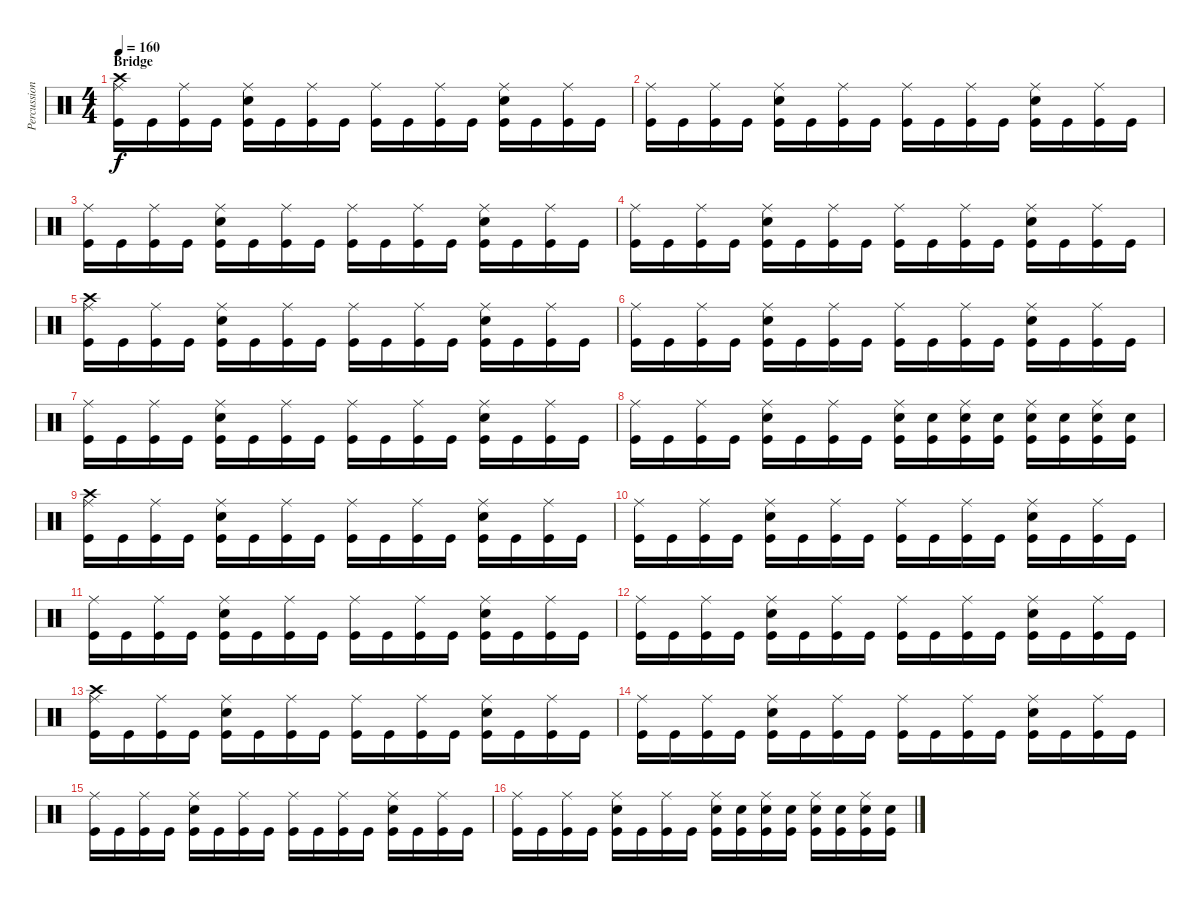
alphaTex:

\track ("Percussion" "Percussion") {instrument percussion}
\staff {score}
\articulation defaults
\ts (4 4)
\section ("" "Bridge")
\tempo 160
\clef neutral
\ks c
("Crash high (hit)" "Ride (middle)" "Kick (hit)").16{dy f} "Kick (hit)".16 ("Ride (middle)" "Kick (hit)").16 "Kick (hit)".16 ("Electric Snare (hit)" "Ride (middle)" "Kick (hit)").16 "Kick (hit)".16 ("Ride (middle)" "Kick (hit)").16 "Kick (hit)".16 ("Ride (middle)" "Kick (hit)").16 "Kick (hit)".16 ("Ride (middle)" "Kick (hit)").16 "Kick (hit)".16 ("Electric Snare (hit)" "Ride (middle)" "Kick (hit)").16 "Kick (hit)".16 ("Ride (middle)" "Kick (hit)").16 "Kick (hit)".16 |
("Ride (middle)" "Kick (hit)").16 "Kick (hit)".16 ("Ride (middle)" "Kick (hit)").16 "Kick (hit)".16 ("Electric Snare (hit)" "Ride (middle)" "Kick (hit)").16 "Kick (hit)".16 ("Ride (middle)" "Kick (hit)").16 "Kick (hit)".16 ("Ride (middle)" "Kick (hit)").16 "Kick (hit)".16 ("Ride (middle)" "Kick (hit)").16 "Kick (hit)".16 ("Electric Snare (hit)" "Ride (middle)" "Kick (hit)").16 "Kick (hit)".16 ("Ride (middle)" "Kick (hit)").16 "Kick (hit)".16 |
("Ride (middle)" "Kick (hit)").16 "Kick (hit)".16 ("Ride (middle)" "Kick (hit)").16 "Kick (hit)".16 ("Electric Snare (hit)" "Ride (middle)" "Kick (hit)").16 "Kick (hit)".16 ("Ride (middle)" "Kick (hit)").16 "Kick (hit)".16 ("Ride (middle)" "Kick (hit)").16 "Kick (hit)".16 ("Ride (middle)" "Kick (hit)").16 "Kick (hit)".16 ("Electric Snare (hit)" "Ride (middle)" "Kick (hit)").16 "Kick (hit)".16 ("Ride (middle)" "Kick (hit)").16 "Kick (hit)".16 |
("Ride (middle)" "Kick (hit)").16 "Kick (hit)".16 ("Ride (middle)" "Kick (hit)").16 "Kick (hit)".16 ("Electric Snare (hit)" "Ride (middle)" "Kick (hit)").16 "Kick (hit)".16 ("Ride (middle)" "Kick (hit)").16 "Kick (hit)".16 ("Ride (middle)" "Kick (hit)").16 "Kick (hit)".16 ("Ride (middle)" "Kick (hit)").16 "Kick (hit)".16 ("Electric Snare (hit)" "Ride (middle)" "Kick (hit)").16 "Kick (hit)".16 ("Ride (middle)" "Kick (hit)").16 "Kick (hit)".16 |
("Crash high (hit)" "Ride (middle)" "Kick (hit)").16 "Kick (hit)".16 ("Ride (middle)" "Kick (hit)").16 "Kick (hit)".16 ("Electric Snare (hit)" "Ride (middle)" "Kick (hit)").16 "Kick (hit)".16 ("Ride (middle)" "Kick (hit)").16 "Kick (hit)".16 ("Ride (middle)" "Kick (hit)").16 "Kick (hit)".16 ("Ride (middle)" "Kick (hit)").16 "Kick (hit)".16 ("Electric Snare (hit)" "Ride (middle)" "Kick (hit)").16 "Kick (hit)".16 ("Ride (middle)" "Kick (hit)").16 "Kick (hit)".16 |
("Ride (middle)" "Kick (hit)").16 "Kick (hit)".16 ("Ride (middle)" "Kick (hit)").16 "Kick (hit)".16 ("Electric Snare (hit)" "Ride (middle)" "Kick (hit)").16 "Kick (hit)".16 ("Ride (middle)" "Kick (hit)").16 "Kick (hit)".16 ("Ride (middle)" "Kick (hit)").16 "Kick (hit)".16 ("Ride (middle)" "Kick (hit)").16 "Kick (hit)".16 ("Electric Snare (hit)" "Ride (middle)" "Kick (hit)").16 "Kick (hit)".16 ("Ride (middle)" "Kick (hit)").16 "Kick (hit)".16 |
("Ride (middle)" "Kick (hit)").16 "Kick (hit)".16 ("Ride (middle)" "Kick (hit)").16 "Kick (hit)".16 ("Electric Snare (hit)" "Ride (middle)" "Kick (hit)").16 "Kick (hit)".16 ("Ride (middle)" "Kick (hit)").16 "Kick (hit)".16 ("Ride (middle)" "Kick (hit)").16 "Kick (hit)".16 ("Ride (middle)" "Kick (hit)").16 "Kick (hit)".16 ("Electric Snare (hit)" "Ride (middle)" "Kick (hit)").16 "Kick (hit)".16 ("Ride (middle)" "Kick (hit)").16 "Kick (hit)".16 |
("Ride (middle)" "Kick (hit)").16 "Kick (hit)".16 ("Ride (middle)" "Kick (hit)").16 "Kick (hit)".16 ("Electric Snare (hit)" "Ride (middle)" "Kick (hit)").16 "Kick (hit)".16 ("Ride (middle)" "Kick (hit)").16 "Kick (hit)".16 ("Electric Snare (hit)" "Ride (middle)" "Kick (hit)").16 ("Electric Snare (hit)" "Kick (hit)").16 ("Electric Snare (hit)" "Ride (middle)" "Kick (hit)").16 ("Electric Snare (hit)" "Kick (hit)").16 ("Electric Snare (hit)" "Ride (middle)" "Kick (hit)").16 ("Electric Snare (hit)" "Kick (hit)").16 ("Electric Snare (hit)" "Ride (middle)" "Kick (hit)").16 ("Electric Snare (hit)" "Kick (hit)").16 |
("Crash high (hit)" "Ride (middle)" "Kick (hit)").16 "Kick (hit)".16 ("Ride (middle)" "Kick (hit)").16 "Kick (hit)".16 ("Electric Snare (hit)" "Ride (middle)" "Kick (hit)").16 "Kick (hit)".16 ("Ride (middle)" "Kick (hit)").16 "Kick (hit)".16 ("Ride (middle)" "Kick (hit)").16 "Kick (hit)".16 ("Ride (middle)" "Kick (hit)").16 "Kick (hit)".16 ("Electric Snare (hit)" "Ride (middle)" "Kick (hit)").16 "Kick (hit)".16 ("Ride (middle)" "Kick (hit)").16 "Kick (hit)".16 |
("Ride (middle)" "Kick (hit)").16 "Kick (hit)".16 ("Ride (middle)" "Kick (hit)").16 "Kick (hit)".16 ("Electric Snare (hit)" "Ride (middle)" "Kick (hit)").16 "Kick (hit)".16 ("Ride (middle)" "Kick (hit)").16 "Kick (hit)".16 ("Ride (middle)" "Kick (hit)").16 "Kick (hit)".16 ("Ride (middle)" "Kick (hit)").16 "Kick (hit)".16 ("Electric Snare (hit)" "Ride (middle)" "Kick (hit)").16 "Kick (hit)".16 ("Ride (middle)" "Kick (hit)").16 "Kick (hit)".16 |
("Ride (middle)" "Kick (hit)").16 "Kick (hit)".16 ("Ride (middle)" "Kick (hit)").16 "Kick (hit)".16 ("Electric Snare (hit)" "Ride (middle)" "Kick (hit)").16 "Kick (hit)".16 ("Ride (middle)" "Kick (hit)").16 "Kick (hit)".16 ("Ride (middle)" "Kick (hit)").16 "Kick (hit)".16 ("Ride (middle)" "Kick (hit)").16 "Kick (hit)".16 ("Electric Snare (hit)" "Ride (middle)" "Kick (hit)").16 "Kick (hit)".16 ("Ride (middle)" "Kick (hit)").16 "Kick (hit)".16 |
("Ride (middle)" "Kick (hit)").16 "Kick (hit)".16 ("Ride (middle)" "Kick (hit)").16 "Kick (hit)".16 ("Electric Snare (hit)" "Ride (middle)" "Kick (hit)").16 "Kick (hit)".16 ("Ride (middle)" "Kick (hit)").16 "Kick (hit)".16 ("Ride (middle)" "Kick (hit)").16 "Kick (hit)".16 ("Ride (middle)" "Kick (hit)").16 "Kick (hit)".16 ("Electric Snare (hit)" "Ride (middle)" "Kick (hit)").16 "Kick (hit)".16 ("Ride (middle)" "Kick (hit)").16 "Kick (hit)".16 |
("Crash high (hit)" "Ride (middle)" "Kick (hit)").16 "Kick (hit)".16 ("Ride (middle)" "Kick (hit)").16 "Kick (hit)".16 ("Electric Snare (hit)" "Ride (middle)" "Kick (hit)").16 "Kick (hit)".16 ("Ride (middle)" "Kick (hit)").16 "Kick (hit)".16 ("Ride (middle)" "Kick (hit)").16 "Kick (hit)".16 ("Ride (middle)" "Kick (hit)").16 "Kick (hit)".16 ("Electric Snare (hit)" "Ride (middle)" "Kick (hit)").16 "Kick (hit)".16 ("Ride (middle)" "Kick (hit)").16 "Kick (hit)".16 |
("Ride (middle)" "Kick (hit)").16 "Kick (hit)".16 ("Ride (middle)" "Kick (hit)").16 "Kick (hit)".16 ("Electric Snare (hit)" "Ride (middle)" "Kick (hit)").16 "Kick (hit)".16 ("Ride (middle)" "Kick (hit)").16 "Kick (hit)".16 ("Ride (middle)" "Kick (hit)").16 "Kick (hit)".16 ("Ride (middle)" "Kick (hit)").16 "Kick (hit)".16 ("Electric Snare (hit)" "Ride (middle)" "Kick (hit)").16 "Kick (hit)".16 ("Ride (middle)" "Kick (hit)").16 "Kick (hit)".16 |
("Ride (middle)" "Kick (hit)").16 "Kick (hit)".16 ("Ride (middle)" "Kick (hit)").16 "Kick (hit)".16 ("Electric Snare (hit)" "Ride (middle)" "Kick (hit)").16 "Kick (hit)".16 ("Ride (middle)" "Kick (hit)").16 "Kick (hit)".16 ("Ride (middle)" "Kick (hit)").16 "Kick (hit)".16 ("Ride (middle)" "Kick (hit)").16 "Kick (hit)".16 ("Electric Snare (hit)" "Ride (middle)" "Kick (hit)").16 "Kick (hit)".16 ("Ride (middle)" "Kick (hit)").16 "Kick (hit)".16 |
("Ride (middle)" "Kick (hit)").16 "Kick (hit)".16 ("Ride (middle)" "Kick (hit)").16 "Kick (hit)".16 ("Electric Snare (hit)" "Ride (middle)" "Kick (hit)").16 "Kick (hit)".16 ("Ride (middle)" "Kick (hit)").16 "Kick (hit)".16 ("Electric Snare (hit)" "Ride (middle)" "Kick (hit)").16 ("Electric Snare (hit)" "Kick (hit)").16 ("Electric Snare (hit)" "Ride (middle)" "Kick (hit)").16 ("Electric Snare (hit)" "Kick (hit)").16 ("Electric Snare (hit)" "Ride (middle)" "Kick (hit)").16 ("Electric Snare (hit)" "Kick (hit)").16 ("Electric Snare (hit)" "Ride (middle)" "Kick (hit)").16 ("Electric Snare (hit)" "Kick (hit)").16
